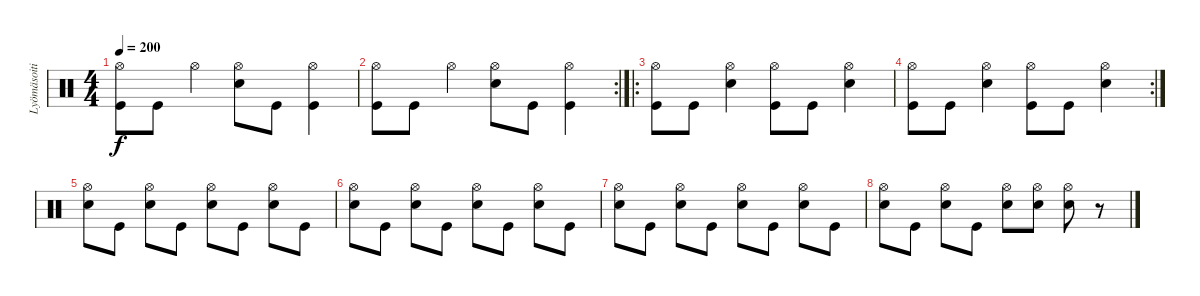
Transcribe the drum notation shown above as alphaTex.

\track ("Lyömäsoitin" "Lyömäsoiti") {instrument percussion}
\staff {score}
\articulation defaults
\ts (4 4)
\tempo 200
\clef neutral
\ks c
("Hi-Hat (open)" "Kick (hit)").8{dy f} "Kick (hit)".8 "Hi-Hat (open)".4 ("Hi-Hat (open)" "Snare (hit) 2").8 "Kick (hit)".8 ("Hi-Hat (open)" "Kick (hit)").4 |
\rc 2
("Hi-Hat (open)" "Kick (hit)").8 "Kick (hit)".8 "Hi-Hat (open)".4 ("Hi-Hat (open)" "Snare (hit) 2").8 "Kick (hit)".8 ("Hi-Hat (open)" "Kick (hit)").4 |
\ro
("Hi-Hat (open)" "Kick (hit)").8 "Kick (hit)".8 ("Hi-Hat (open)" "Snare (hit) 2").4 ("Hi-Hat (open)" "Kick (hit)").8 "Kick (hit)".8 ("Hi-Hat (open)" "Snare (hit) 2").4 |
\rc 2
("Hi-Hat (open)" "Kick (hit)").8 "Kick (hit)".8 ("Hi-Hat (open)" "Snare (hit) 2").4 ("Hi-Hat (open)" "Kick (hit)").8 "Kick (hit)".8 ("Hi-Hat (open)" "Snare (hit) 2").4 |
("Hi-Hat (open)" "Snare (hit) 2").8 "Kick (hit)".8 ("Hi-Hat (open)" "Snare (hit) 2").8 "Kick (hit)".8 ("Hi-Hat (open)" "Snare (hit) 2").8 "Kick (hit)".8 ("Hi-Hat (open)" "Snare (hit) 2").8 "Kick (hit)".8 |
("Hi-Hat (open)" "Snare (hit) 2").8 "Kick (hit)".8 ("Hi-Hat (open)" "Snare (hit) 2").8 "Kick (hit)".8 ("Hi-Hat (open)" "Snare (hit) 2").8 "Kick (hit)".8 ("Hi-Hat (open)" "Snare (hit) 2").8 "Kick (hit)".8 |
("Hi-Hat (open)" "Snare (hit) 2").8 "Kick (hit)".8 ("Hi-Hat (open)" "Snare (hit) 2").8 "Kick (hit)".8 ("Hi-Hat (open)" "Snare (hit) 2").8 "Kick (hit)".8 ("Hi-Hat (open)" "Snare (hit) 2").8 "Kick (hit)".8 |
("Hi-Hat (open)" "Snare (hit) 2").8 "Kick (hit)".8 ("Hi-Hat (open)" "Snare (hit) 2").8 "Kick (hit)".8 ("Hi-Hat (open)" "Snare (hit) 2").8 ("Hi-Hat (open)" "Snare (hit) 2").8 ("Hi-Hat (open)" "Snare (hit) 2").8 r.8
